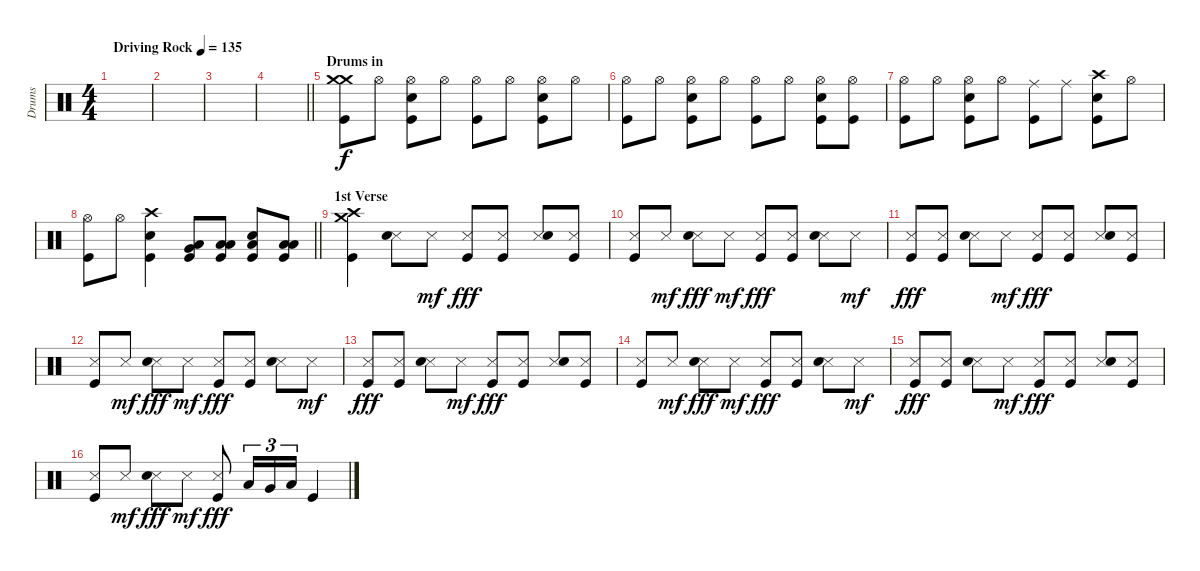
\track ("Drums" "Drums") {instrument percussion}
\staff {score}
\articulation defaults
\ts (4 4)
\tempo (135 "Driving Rock")
\clef neutral
\ks c
|
|
|
\barLineRight lightlight
|
\section ("" "Drums in")
("Crash medium (hit)" "Crash medium (hit)" "Kick (hit)").8 "Hi-Hat (open)".8 ("Hi-Hat (open)" "Snare (hit) 2" "Kick (hit)").8 "Hi-Hat (open)".8 ("Hi-Hat (open)" "Kick (hit)").8 "Hi-Hat (open)".8 ("Hi-Hat (open)" "Snare (hit) 2" "Kick (hit)").8 "Hi-Hat (open)".8 |
("Hi-Hat (open)" "Kick (hit)").8 "Hi-Hat (open)".8 ("Hi-Hat (open)" "Snare (hit) 2" "Kick (hit)").8 "Hi-Hat (open)".8 ("Hi-Hat (open)" "Kick (hit)").8 "Hi-Hat (open)".8 ("Hi-Hat (open)" "Snare (hit) 2" "Kick (hit)").8 ("Hi-Hat (open)" "Kick (hit)").8 |
("Hi-Hat (open)" "Kick (hit)").8 "Hi-Hat (open)".8 ("Hi-Hat (open)" "Snare (hit) 2" "Kick (hit)").8 "Hi-Hat (open)".8 ("Ride (middle)" "Kick (hit)").8 "Ride (middle)".8 ("Crash high (hit)" "Snare (hit) 2" "Kick (hit)").8 "Hi-Hat (open)".8 |
\barLineRight lightlight
("Hi-Hat (open)" "Kick (hit)").8 "Hi-Hat (open)".8 ("Crash high (hit)" "Snare (hit) 2" "Kick (hit)").4 ("Very Low Tom (hit)" "Low Floor Tom (hit)" "Kick (hit)").8 ("Low Tom (hit)" "Low Floor Tom (hit)" "Kick (hit)").8 ("Low Floor Tom (hit)" "Snare (hit) 2" "Kick (hit)").8 ("Low Tom (hit)" "Low Floor Tom (hit)" "Kick (hit)").8 |
\section ("" "1st Verse")
("Crash medium (hit)" "Crash high (hit)" "Kick (hit)").4 ("Snare (side stick) 3" "Snare (hit) 2").8 "Snare (side stick) 3".8{dy mf} ("Snare (side stick) 3" "Kick (hit)").8{dy fff} ("Snare (side stick) 3" "Kick (hit)").8 ("Snare (side stick) 3" "Snare (hit) 2").8 ("Snare (side stick) 3" "Kick (hit)").8 |
("Snare (side stick) 3" "Kick (hit)").8 "Snare (side stick) 3".8{dy mf} ("Snare (side stick) 3" "Snare (hit) 2").8{dy fff} "Snare (side stick) 3".8{dy mf} ("Snare (side stick) 3" "Kick (hit)").8{dy fff} ("Snare (side stick) 3" "Kick (hit)").8 ("Snare (side stick) 3" "Snare (hit) 2").8 "Snare (side stick) 3".8{dy mf} |
("Snare (side stick) 3" "Kick (hit)").8{dy fff} ("Snare (side stick) 3" "Kick (hit)").8 ("Snare (side stick) 3" "Snare (hit) 2").8 "Snare (side stick) 3".8{dy mf} ("Snare (side stick) 3" "Kick (hit)").8{dy fff} ("Snare (side stick) 3" "Kick (hit)").8 ("Snare (side stick) 3" "Snare (hit) 2").8 ("Snare (side stick) 3" "Kick (hit)").8 |
("Snare (side stick) 3" "Kick (hit)").8 "Snare (side stick) 3".8{dy mf} ("Snare (side stick) 3" "Snare (hit) 2").8{dy fff} "Snare (side stick) 3".8{dy mf} ("Snare (side stick) 3" "Kick (hit)").8{dy fff} ("Snare (side stick) 3" "Kick (hit)").8 ("Snare (side stick) 3" "Snare (hit) 2").8 "Snare (side stick) 3".8{dy mf} |
("Snare (side stick) 3" "Kick (hit)").8{dy fff} ("Snare (side stick) 3" "Kick (hit)").8 ("Snare (side stick) 3" "Snare (hit) 2").8 "Snare (side stick) 3".8{dy mf} ("Snare (side stick) 3" "Kick (hit)").8{dy fff} ("Snare (side stick) 3" "Kick (hit)").8 ("Snare (side stick) 3" "Snare (hit) 2").8 ("Snare (side stick) 3" "Kick (hit)").8 |
("Snare (side stick) 3" "Kick (hit)").8 "Snare (side stick) 3".8{dy mf} ("Snare (side stick) 3" "Snare (hit) 2").8{dy fff} "Snare (side stick) 3".8{dy mf} ("Snare (side stick) 3" "Kick (hit)").8{dy fff} ("Snare (side stick) 3" "Kick (hit)").8 ("Snare (side stick) 3" "Snare (hit) 2").8 "Snare (side stick) 3".8{dy mf} |
("Snare (side stick) 3" "Kick (hit)").8{dy fff} ("Snare (side stick) 3" "Kick (hit)").8 ("Snare (side stick) 3" "Snare (hit) 2").8 "Snare (side stick) 3".8{dy mf} ("Snare (side stick) 3" "Kick (hit)").8{dy fff} ("Snare (side stick) 3" "Kick (hit)").8 ("Snare (side stick) 3" "Snare (hit) 2").8 ("Snare (side stick) 3" "Kick (hit)").8 |
("Snare (side stick) 3" "Kick (hit)").8 "Snare (side stick) 3".8{dy mf} ("Snare (side stick) 3" "Snare (hit) 2").8{dy fff} "Snare (side stick) 3".8{dy mf} ("Snare (side stick) 3" "Kick (hit)").8{dy fff} "Low Tom (hit)".16{tu (3 2)} "Very Low Tom (hit)".16{tu (3 2)} "Low Floor Tom (hit)".16{tu (3 2)} "Kick (hit)".4
